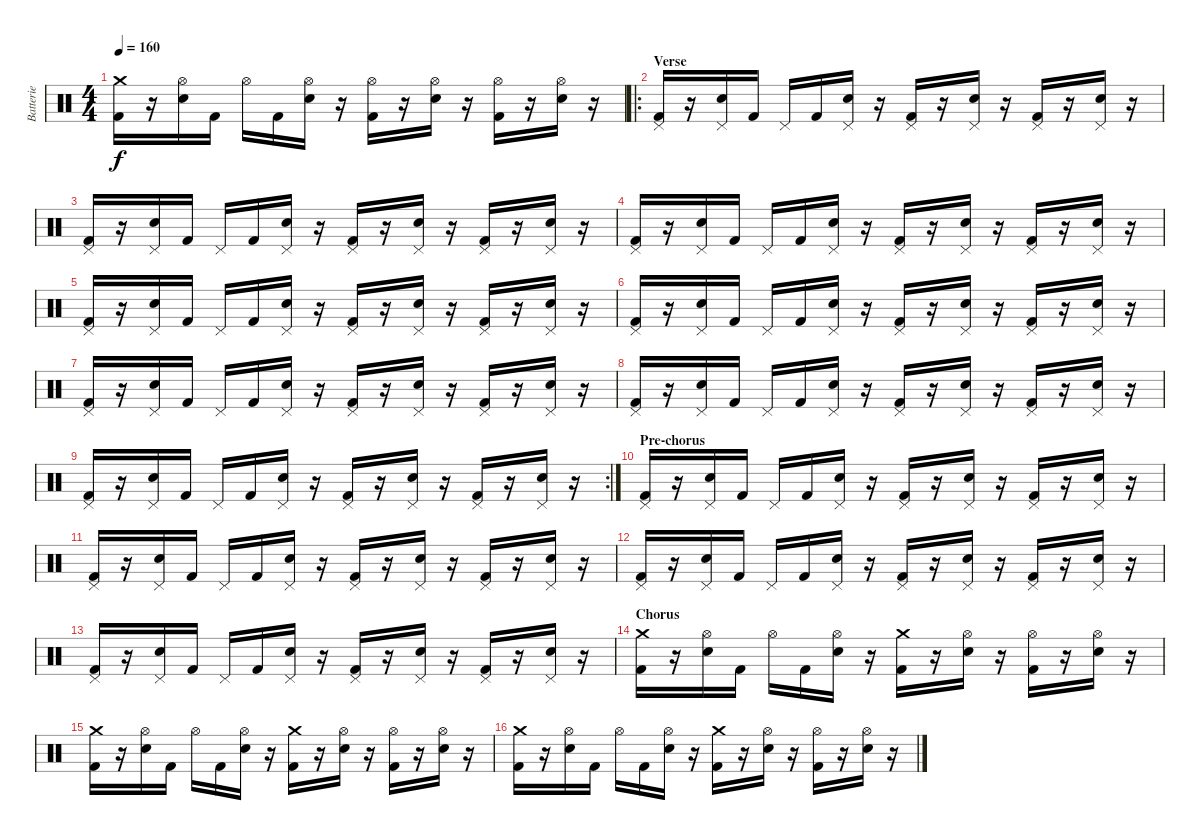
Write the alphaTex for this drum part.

\track ("Batterie" "Batterie") {instrument percussion}
\staff {score}
\articulation defaults
\ts (4 4)
\tempo 160
\clef neutral
\ks c
("Crash medium (hit)" "Kick (hit) 2").16{dy f} r.16 ("Hi-Hat (open)" "Electric Snare (hit)").16 "Kick (hit) 2".16 "Hi-Hat (open)".16 "Kick (hit) 2".16 ("Hi-Hat (open)" "Electric Snare (hit)").16 r.16 ("Hi-Hat (open)" "Kick (hit) 2").16 r.16 ("Hi-Hat (open)" "Electric Snare (hit)").16 r.16 ("Hi-Hat (open)" "Kick (hit) 2").16 r.16 ("Hi-Hat (open)" "Electric Snare (hit)").16 r.16 |
\ro
\section ("" "Verse")
("Pedal Hi-Hat (hit)" "Kick (hit) 2").16 r.16 ("Pedal Hi-Hat (hit)" "Electric Snare (hit)").16 "Kick (hit) 2".16 "Pedal Hi-Hat (hit)".16 "Kick (hit) 2".16 ("Pedal Hi-Hat (hit)" "Electric Snare (hit)").16 r.16 ("Pedal Hi-Hat (hit)" "Kick (hit) 2").16 r.16 ("Pedal Hi-Hat (hit)" "Electric Snare (hit)").16 r.16 ("Pedal Hi-Hat (hit)" "Kick (hit) 2").16 r.16 ("Pedal Hi-Hat (hit)" "Electric Snare (hit)").16 r.16 |
("Pedal Hi-Hat (hit)" "Kick (hit) 2").16 r.16 ("Pedal Hi-Hat (hit)" "Electric Snare (hit)").16 "Kick (hit) 2".16 "Pedal Hi-Hat (hit)".16 "Kick (hit) 2".16 ("Pedal Hi-Hat (hit)" "Electric Snare (hit)").16 r.16 ("Pedal Hi-Hat (hit)" "Kick (hit) 2").16 r.16 ("Pedal Hi-Hat (hit)" "Electric Snare (hit)").16 r.16 ("Pedal Hi-Hat (hit)" "Kick (hit) 2").16 r.16 ("Pedal Hi-Hat (hit)" "Electric Snare (hit)").16 r.16 |
("Pedal Hi-Hat (hit)" "Kick (hit) 2").16 r.16 ("Pedal Hi-Hat (hit)" "Electric Snare (hit)").16 "Kick (hit) 2".16 "Pedal Hi-Hat (hit)".16 "Kick (hit) 2".16 ("Pedal Hi-Hat (hit)" "Electric Snare (hit)").16 r.16 ("Pedal Hi-Hat (hit)" "Kick (hit) 2").16 r.16 ("Pedal Hi-Hat (hit)" "Electric Snare (hit)").16 r.16 ("Pedal Hi-Hat (hit)" "Kick (hit) 2").16 r.16 ("Pedal Hi-Hat (hit)" "Electric Snare (hit)").16 r.16 |
("Pedal Hi-Hat (hit)" "Kick (hit) 2").16 r.16 ("Pedal Hi-Hat (hit)" "Electric Snare (hit)").16 "Kick (hit) 2".16 "Pedal Hi-Hat (hit)".16 "Kick (hit) 2".16 ("Pedal Hi-Hat (hit)" "Electric Snare (hit)").16 r.16 ("Pedal Hi-Hat (hit)" "Kick (hit) 2").16 r.16 ("Pedal Hi-Hat (hit)" "Electric Snare (hit)").16 r.16 ("Pedal Hi-Hat (hit)" "Kick (hit) 2").16 r.16 ("Pedal Hi-Hat (hit)" "Electric Snare (hit)").16 r.16 |
("Pedal Hi-Hat (hit)" "Kick (hit) 2").16 r.16 ("Pedal Hi-Hat (hit)" "Electric Snare (hit)").16 "Kick (hit) 2".16 "Pedal Hi-Hat (hit)".16 "Kick (hit) 2".16 ("Pedal Hi-Hat (hit)" "Electric Snare (hit)").16 r.16 ("Pedal Hi-Hat (hit)" "Kick (hit) 2").16 r.16 ("Pedal Hi-Hat (hit)" "Electric Snare (hit)").16 r.16 ("Pedal Hi-Hat (hit)" "Kick (hit) 2").16 r.16 ("Pedal Hi-Hat (hit)" "Electric Snare (hit)").16 r.16 |
("Pedal Hi-Hat (hit)" "Kick (hit) 2").16 r.16 ("Pedal Hi-Hat (hit)" "Electric Snare (hit)").16 "Kick (hit) 2".16 "Pedal Hi-Hat (hit)".16 "Kick (hit) 2".16 ("Pedal Hi-Hat (hit)" "Electric Snare (hit)").16 r.16 ("Pedal Hi-Hat (hit)" "Kick (hit) 2").16 r.16 ("Pedal Hi-Hat (hit)" "Electric Snare (hit)").16 r.16 ("Pedal Hi-Hat (hit)" "Kick (hit) 2").16 r.16 ("Pedal Hi-Hat (hit)" "Electric Snare (hit)").16 r.16 |
("Pedal Hi-Hat (hit)" "Kick (hit) 2").16 r.16 ("Pedal Hi-Hat (hit)" "Electric Snare (hit)").16 "Kick (hit) 2".16 "Pedal Hi-Hat (hit)".16 "Kick (hit) 2".16 ("Pedal Hi-Hat (hit)" "Electric Snare (hit)").16 r.16 ("Pedal Hi-Hat (hit)" "Kick (hit) 2").16 r.16 ("Pedal Hi-Hat (hit)" "Electric Snare (hit)").16 r.16 ("Pedal Hi-Hat (hit)" "Kick (hit) 2").16 r.16 ("Pedal Hi-Hat (hit)" "Electric Snare (hit)").16 r.16 |
\rc 2
("Pedal Hi-Hat (hit)" "Kick (hit) 2").16 r.16 ("Pedal Hi-Hat (hit)" "Electric Snare (hit)").16 "Kick (hit) 2".16 "Pedal Hi-Hat (hit)".16 "Kick (hit) 2".16 ("Pedal Hi-Hat (hit)" "Electric Snare (hit)").16 r.16 ("Pedal Hi-Hat (hit)" "Kick (hit) 2").16 r.16 ("Pedal Hi-Hat (hit)" "Electric Snare (hit)").16 r.16 ("Pedal Hi-Hat (hit)" "Kick (hit) 2").16 r.16 ("Pedal Hi-Hat (hit)" "Electric Snare (hit)").16 r.16 |
\section ("" "Pre-chorus")
("Pedal Hi-Hat (hit)" "Kick (hit) 2").16 r.16 ("Pedal Hi-Hat (hit)" "Electric Snare (hit)").16 "Kick (hit) 2".16 "Pedal Hi-Hat (hit)".16 "Kick (hit) 2".16 ("Pedal Hi-Hat (hit)" "Electric Snare (hit)").16 r.16 ("Pedal Hi-Hat (hit)" "Kick (hit) 2").16 r.16 ("Pedal Hi-Hat (hit)" "Electric Snare (hit)").16 r.16 ("Pedal Hi-Hat (hit)" "Kick (hit) 2").16 r.16 ("Pedal Hi-Hat (hit)" "Electric Snare (hit)").16 r.16 |
("Pedal Hi-Hat (hit)" "Kick (hit) 2").16 r.16 ("Pedal Hi-Hat (hit)" "Electric Snare (hit)").16 "Kick (hit) 2".16 "Pedal Hi-Hat (hit)".16 "Kick (hit) 2".16 ("Pedal Hi-Hat (hit)" "Electric Snare (hit)").16 r.16 ("Pedal Hi-Hat (hit)" "Kick (hit) 2").16 r.16 ("Pedal Hi-Hat (hit)" "Electric Snare (hit)").16 r.16 ("Pedal Hi-Hat (hit)" "Kick (hit) 2").16 r.16 ("Pedal Hi-Hat (hit)" "Electric Snare (hit)").16 r.16 |
("Pedal Hi-Hat (hit)" "Kick (hit) 2").16 r.16 ("Pedal Hi-Hat (hit)" "Electric Snare (hit)").16 "Kick (hit) 2".16 "Pedal Hi-Hat (hit)".16 "Kick (hit) 2".16 ("Pedal Hi-Hat (hit)" "Electric Snare (hit)").16 r.16 ("Pedal Hi-Hat (hit)" "Kick (hit) 2").16 r.16 ("Pedal Hi-Hat (hit)" "Electric Snare (hit)").16 r.16 ("Pedal Hi-Hat (hit)" "Kick (hit) 2").16 r.16 ("Pedal Hi-Hat (hit)" "Electric Snare (hit)").16 r.16 |
("Pedal Hi-Hat (hit)" "Kick (hit) 2").16 r.16 ("Pedal Hi-Hat (hit)" "Electric Snare (hit)").16 "Kick (hit) 2".16 "Pedal Hi-Hat (hit)".16 "Kick (hit) 2".16 ("Pedal Hi-Hat (hit)" "Electric Snare (hit)").16 r.16 ("Pedal Hi-Hat (hit)" "Kick (hit) 2").16 r.16 ("Pedal Hi-Hat (hit)" "Electric Snare (hit)").16 r.16 ("Pedal Hi-Hat (hit)" "Kick (hit) 2").16 r.16 ("Pedal Hi-Hat (hit)" "Electric Snare (hit)").16 r.16 |
\section ("" "Chorus")
("Crash medium (hit)" "Kick (hit) 2").16 r.16 ("Hi-Hat (open)" "Electric Snare (hit)").16 "Kick (hit) 2".16 "Hi-Hat (open)".16 "Kick (hit) 2".16 ("Hi-Hat (open)" "Electric Snare (hit)").16 r.16 ("Crash medium (hit)" "Kick (hit) 2").16 r.16 ("Hi-Hat (open)" "Electric Snare (hit)").16 r.16 ("Hi-Hat (open)" "Kick (hit) 2").16 r.16 ("Hi-Hat (open)" "Electric Snare (hit)").16 r.16 |
("Crash medium (hit)" "Kick (hit) 2").16 r.16 ("Hi-Hat (open)" "Electric Snare (hit)").16 "Kick (hit) 2".16 "Hi-Hat (open)".16 "Kick (hit) 2".16 ("Hi-Hat (open)" "Electric Snare (hit)").16 r.16 ("Crash medium (hit)" "Kick (hit) 2").16 r.16 ("Hi-Hat (open)" "Electric Snare (hit)").16 r.16 ("Hi-Hat (open)" "Kick (hit) 2").16 r.16 ("Hi-Hat (open)" "Electric Snare (hit)").16 r.16 |
("Crash medium (hit)" "Kick (hit) 2").16 r.16 ("Hi-Hat (open)" "Electric Snare (hit)").16 "Kick (hit) 2".16 "Hi-Hat (open)".16 "Kick (hit) 2".16 ("Hi-Hat (open)" "Electric Snare (hit)").16 r.16 ("Crash medium (hit)" "Kick (hit) 2").16 r.16 ("Hi-Hat (open)" "Electric Snare (hit)").16 r.16 ("Hi-Hat (open)" "Kick (hit) 2").16 r.16 ("Hi-Hat (open)" "Electric Snare (hit)").16 r.16
